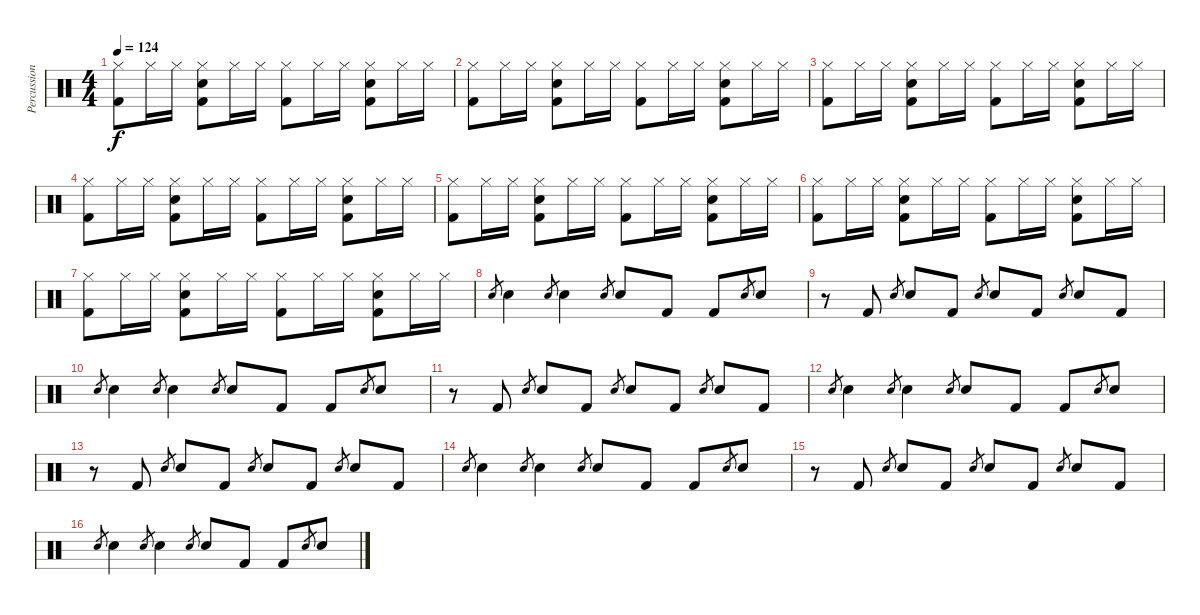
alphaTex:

\track ("Percussion" "Percussion") {instrument percussion}
\staff {score}
\articulation defaults
\ts (4 4)
\tempo 124
\clef neutral
\ks c
("Hi-Hat (closed)" "Kick (hit) 2").8{dy f} "Hi-Hat (closed)".16 "Hi-Hat (closed)".16 ("Hi-Hat (closed)" "Snare (hit) 2" "Kick (hit) 2").8 "Hi-Hat (closed)".16 "Hi-Hat (closed)".16 ("Hi-Hat (closed)" "Kick (hit) 2").8 "Hi-Hat (closed)".16 "Hi-Hat (closed)".16 ("Hi-Hat (closed)" "Snare (hit) 2" "Kick (hit) 2").8 "Hi-Hat (closed)".16 "Hi-Hat (closed)".16 |
("Hi-Hat (closed)" "Kick (hit) 2").8 "Hi-Hat (closed)".16 "Hi-Hat (closed)".16 ("Hi-Hat (closed)" "Snare (hit) 2" "Kick (hit) 2").8 "Hi-Hat (closed)".16 "Hi-Hat (closed)".16 ("Hi-Hat (closed)" "Kick (hit) 2").8 "Hi-Hat (closed)".16 "Hi-Hat (closed)".16 ("Hi-Hat (closed)" "Snare (hit) 2" "Kick (hit) 2").8 "Hi-Hat (closed)".16 "Hi-Hat (closed)".16 |
("Hi-Hat (closed)" "Kick (hit) 2").8 "Hi-Hat (closed)".16 "Hi-Hat (closed)".16 ("Hi-Hat (closed)" "Snare (hit) 2" "Kick (hit) 2").8 "Hi-Hat (closed)".16 "Hi-Hat (closed)".16 ("Hi-Hat (closed)" "Kick (hit) 2").8 "Hi-Hat (closed)".16 "Hi-Hat (closed)".16 ("Hi-Hat (closed)" "Snare (hit) 2" "Kick (hit) 2").8 "Hi-Hat (closed)".16 "Hi-Hat (closed)".16 |
("Hi-Hat (closed)" "Kick (hit) 2").8 "Hi-Hat (closed)".16 "Hi-Hat (closed)".16 ("Hi-Hat (closed)" "Snare (hit) 2" "Kick (hit) 2").8 "Hi-Hat (closed)".16 "Hi-Hat (closed)".16 ("Hi-Hat (closed)" "Kick (hit) 2").8 "Hi-Hat (closed)".16 "Hi-Hat (closed)".16 ("Hi-Hat (closed)" "Snare (hit) 2" "Kick (hit) 2").8 "Hi-Hat (closed)".16 "Hi-Hat (closed)".16 |
("Hi-Hat (closed)" "Kick (hit) 2").8 "Hi-Hat (closed)".16 "Hi-Hat (closed)".16 ("Hi-Hat (closed)" "Snare (hit) 2" "Kick (hit) 2").8 "Hi-Hat (closed)".16 "Hi-Hat (closed)".16 ("Hi-Hat (closed)" "Kick (hit) 2").8 "Hi-Hat (closed)".16 "Hi-Hat (closed)".16 ("Hi-Hat (closed)" "Snare (hit) 2" "Kick (hit) 2").8 "Hi-Hat (closed)".16 "Hi-Hat (closed)".16 |
("Hi-Hat (closed)" "Kick (hit) 2").8 "Hi-Hat (closed)".16 "Hi-Hat (closed)".16 ("Hi-Hat (closed)" "Snare (hit) 2" "Kick (hit) 2").8 "Hi-Hat (closed)".16 "Hi-Hat (closed)".16 ("Hi-Hat (closed)" "Kick (hit) 2").8 "Hi-Hat (closed)".16 "Hi-Hat (closed)".16 ("Hi-Hat (closed)" "Snare (hit) 2" "Kick (hit) 2").8 "Hi-Hat (closed)".16 "Hi-Hat (closed)".16 |
("Hi-Hat (closed)" "Kick (hit) 2").8 "Hi-Hat (closed)".16 "Hi-Hat (closed)".16 ("Hi-Hat (closed)" "Snare (hit) 2" "Kick (hit) 2").8 "Hi-Hat (closed)".16 "Hi-Hat (closed)".16 ("Hi-Hat (closed)" "Kick (hit) 2").8 "Hi-Hat (closed)".16 "Hi-Hat (closed)".16 ("Hi-Hat (closed)" "Snare (hit) 2" "Kick (hit) 2").8 "Hi-Hat (closed)".16 "Hi-Hat (closed)".16 |
"Snare (hit) 2".8{gr} "Snare (hit) 2".4 "Snare (hit) 2".8{gr} "Snare (hit) 2".4 "Snare (hit) 2".8{gr} "Snare (hit) 2".8 "Kick (hit) 2".8 "Kick (hit) 2".8 "Snare (hit) 2".8{gr} "Snare (hit) 2".8 |
r.8 "Kick (hit) 2".8 "Snare (hit) 2".8{gr} "Snare (hit) 2".8 "Kick (hit) 2".8 "Snare (hit) 2".8{gr} "Snare (hit) 2".8 "Kick (hit) 2".8 "Snare (hit) 2".8{gr} "Snare (hit) 2".8 "Kick (hit) 2".8 |
"Snare (hit) 2".8{gr} "Snare (hit) 2".4 "Snare (hit) 2".8{gr} "Snare (hit) 2".4 "Snare (hit) 2".8{gr} "Snare (hit) 2".8 "Kick (hit) 2".8 "Kick (hit) 2".8 "Snare (hit) 2".8{gr} "Snare (hit) 2".8 |
r.8 "Kick (hit) 2".8 "Snare (hit) 2".8{gr} "Snare (hit) 2".8 "Kick (hit) 2".8 "Snare (hit) 2".8{gr} "Snare (hit) 2".8 "Kick (hit) 2".8 "Snare (hit) 2".8{gr} "Snare (hit) 2".8 "Kick (hit) 2".8 |
"Snare (hit) 2".8{gr} "Snare (hit) 2".4 "Snare (hit) 2".8{gr} "Snare (hit) 2".4 "Snare (hit) 2".8{gr} "Snare (hit) 2".8 "Kick (hit) 2".8 "Kick (hit) 2".8 "Snare (hit) 2".8{gr} "Snare (hit) 2".8 |
r.8 "Kick (hit) 2".8 "Snare (hit) 2".8{gr} "Snare (hit) 2".8 "Kick (hit) 2".8 "Snare (hit) 2".8{gr} "Snare (hit) 2".8 "Kick (hit) 2".8 "Snare (hit) 2".8{gr} "Snare (hit) 2".8 "Kick (hit) 2".8 |
"Snare (hit) 2".8{gr} "Snare (hit) 2".4 "Snare (hit) 2".8{gr} "Snare (hit) 2".4 "Snare (hit) 2".8{gr} "Snare (hit) 2".8 "Kick (hit) 2".8 "Kick (hit) 2".8 "Snare (hit) 2".8{gr} "Snare (hit) 2".8 |
r.8 "Kick (hit) 2".8 "Snare (hit) 2".8{gr} "Snare (hit) 2".8 "Kick (hit) 2".8 "Snare (hit) 2".8{gr} "Snare (hit) 2".8 "Kick (hit) 2".8 "Snare (hit) 2".8{gr} "Snare (hit) 2".8 "Kick (hit) 2".8 |
"Snare (hit) 2".8{gr} "Snare (hit) 2".4 "Snare (hit) 2".8{gr} "Snare (hit) 2".4 "Snare (hit) 2".8{gr} "Snare (hit) 2".8 "Kick (hit) 2".8 "Kick (hit) 2".8 "Snare (hit) 2".8{gr} "Snare (hit) 2".8
